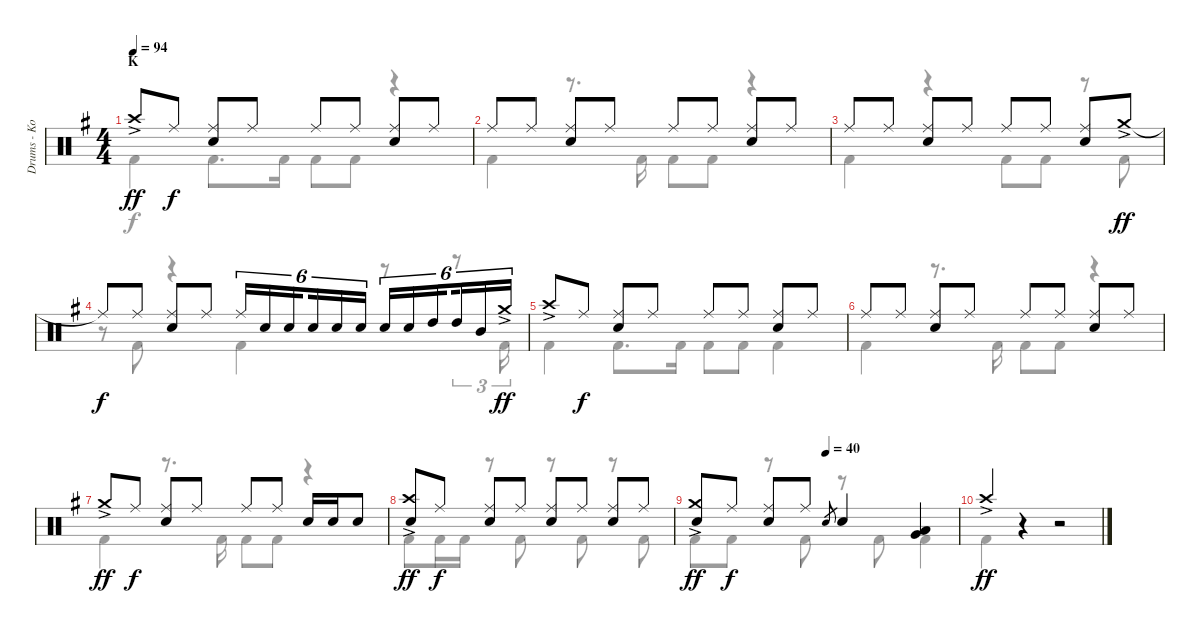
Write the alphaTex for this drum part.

\track ("Drums - Koji Hasegawa" "Drums - Ko") {instrument percussion}
\staff {score}
\articulation defaults
\voice
\ts (4 4)
\section ("" "K")
\tempo 94
\clef neutral
\ks g "Crash high (hit)"{ac}.8{dy ff} "Ride (middle)".8{dy f}
("Ride (middle)" "Electric Snare (hit)").8 "Ride (middle)".8 "Ride (middle)".8 "Ride (middle)".8 ("Ride (middle)" "Electric Snare (hit)").8 "Ride (middle)".8 |
"Ride (middle)".8 "Ride (middle)".8 ("Ride (middle)" "Electric Snare (hit)").8 "Ride (middle)".8 "Ride (middle)".8 "Ride (middle)".8 ("Ride (middle)" "Electric Snare (hit)").8 "Ride (middle)".8 |
"Ride (middle)".8 "Ride (middle)".8 ("Ride (middle)" "Electric Snare (hit)").8 "Ride (middle)".8 "Ride (middle)".8 "Ride (middle)".8 ("Ride (middle)" "Electric Snare (hit)").8 "Crash medium (hit)"{ac}.8{dy ff} |
"Ride (middle)"{t}.8{dy f} "Ride (middle)".8 ("Ride (middle)" "Electric Snare (hit)").8 "Ride (middle)".8 "Ride (middle)".16{tu (6 4)} "Electric Snare (hit)".16{tu (6 4)} "Electric Snare (hit)".16{tu (6 4) beam splitsecondary} "Electric Snare (hit)".16{tu (6 4)} "Electric Snare (hit)".16{tu (6 4)} "Electric Snare (hit)".16{tu (6 4)} "Electric Snare (hit)".16{tu (6 4)} "Electric Snare (hit)".16{tu (6 4)} "High Tom (hit)".16{tu (6 4) beam splitsecondary} "High Tom (hit)".16{tu (6 4)} "Mid Tom (hit)".16{tu (6 4)} "Crash medium (hit)"{ac}.16{tu (6 4) dy ff} |
"Crash high (hit)"{ac}.8 "Ride (middle)".8{dy f} ("Ride (middle)" "Electric Snare (hit)").8 "Ride (middle)".8 "Ride (middle)".8 "Ride (middle)".8 ("Ride (middle)" "Electric Snare (hit)").8 "Ride (middle)".8 |
"Ride (middle)".8 "Ride (middle)".8 ("Ride (middle)" "Electric Snare (hit)").8 "Ride (middle)".8 "Ride (middle)".8 "Ride (middle)".8 ("Ride (middle)" "Electric Snare (hit)").8 "Ride (middle)".8 |
"Crash medium (hit)"{ac}.8{dy ff} "Ride (middle)".8{dy f} ("Ride (middle)" "Electric Snare (hit)").8 "Ride (middle)".8 "Ride (middle)".8 "Ride (middle)".8 "Electric Snare (hit)".16 "Electric Snare (hit)".16 "Electric Snare (hit)".8 |
("Crash high (hit)"{ac} "Electric Snare (hit)").8{dy ff} "Ride (middle)".8{dy f} ("Ride (middle)" "Electric Snare (hit)").8 "Ride (middle)".8 ("Ride (middle)" "Electric Snare (hit)").8 "Ride (middle)".8 ("Ride (middle)" "Electric Snare (hit)").8 "Ride (middle)".8 |
\tempo (40 0.5)
("Crash medium (hit)"{ac} "Electric Snare (hit)").8{dy ff} "Ride (middle)".8{dy f} ("Ride (middle)" "Electric Snare (hit)").8 "Ride (middle)".8 "Electric Snare (hit)".8{gr} "Electric Snare (hit)".4 ("Low Tom (hit)" "Very Low Tom (hit)").4 |
"Crash high (hit)"{ac}.4{dy ff} r.4 r.2
\voice
\clef neutral
\ottava regular
\simile none
\ks g "Kick (hit) 2".4{dy f} "Kick (hit) 2".8{d} "Kick (hit) 2".16 "Kick (hit) 2".8 "Kick (hit) 2".8
r.4 |
"Kick (hit) 2".4 r.8{d} "Kick (hit) 2".16 "Kick (hit) 2".8 "Kick (hit) 2".8 r.4 |
"Kick (hit) 2".4 r.4 "Kick (hit) 2".8 "Kick (hit) 2".8 r.8 "Kick (hit) 2".8 |
r.8 "Kick (hit) 2".8 r.4 "Kick (hit) 2".4 r.8 r.8{tu (3 2)} "Kick (hit) 2".16{tu (3 2)} |
"Kick (hit) 2".4 "Kick (hit) 2".8{d} "Kick (hit) 2".16 "Kick (hit) 2".8 "Kick (hit) 2".8 "Kick (hit) 2".4 |
"Kick (hit) 2".4 r.8{d} "Kick (hit) 2".16 "Kick (hit) 2".8 "Kick (hit) 2".8 r.4 |
"Kick (hit) 2".4 r.8{d} "Kick (hit) 2".16 "Kick (hit) 2".8 "Kick (hit) 2".8 r.4 |
"Kick (hit) 2".8 "Kick (hit) 2".16 "Kick (hit) 2".16 r.8 "Kick (hit) 2".8 r.8 "Kick (hit) 2".8 r.8 "Kick (hit) 2".8 |
"Kick (hit) 2".8 "Kick (hit) 2".8 r.8 "Kick (hit) 2".8 r.8 "Kick (hit) 2".8 "Kick (hit) 2".4 |
"Kick (hit) 2".4 r.4 r.2
